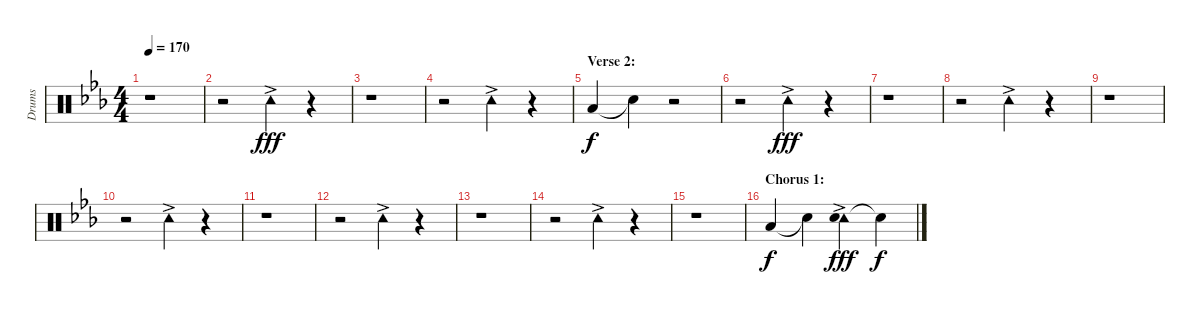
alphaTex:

\track ("Drums" "Drums") {instrument percussion}
\staff {score}
\articulation defaults
\ts (4 4)
\tempo 170
\clef neutral
\ks cminor
r.1{dy fff} |
r.2 "Tambourine (hit)"{ac}.4 r.4 |
r.1 |
r.2 "Tambourine (hit)"{ac}.4 r.4 |
\section ("" "Verse 2:")
"Low Floor Tom (hit)".4{dy f} "Snare (hit)"{t}.4 r.2 |
r.2 "Tambourine (hit)"{ac}.4{dy fff} r.4 |
r.1 |
r.2 "Tambourine (hit)"{ac}.4 r.4 |
r.1 |
r.2 "Tambourine (hit)"{ac}.4 r.4 |
r.1 |
r.2 "Tambourine (hit)"{ac}.4 r.4 |
r.1 |
r.2 "Tambourine (hit)"{ac}.4 r.4 |
r.1 |
\section ("" "Chorus 1:")
"Low Floor Tom (hit)".4{dy f} "Snare (hit)"{t}.4 ("Tambourine (hit)"{ac} "Snare (hit)").4{dy fff} "Snare (hit)"{t}.4{dy f}
